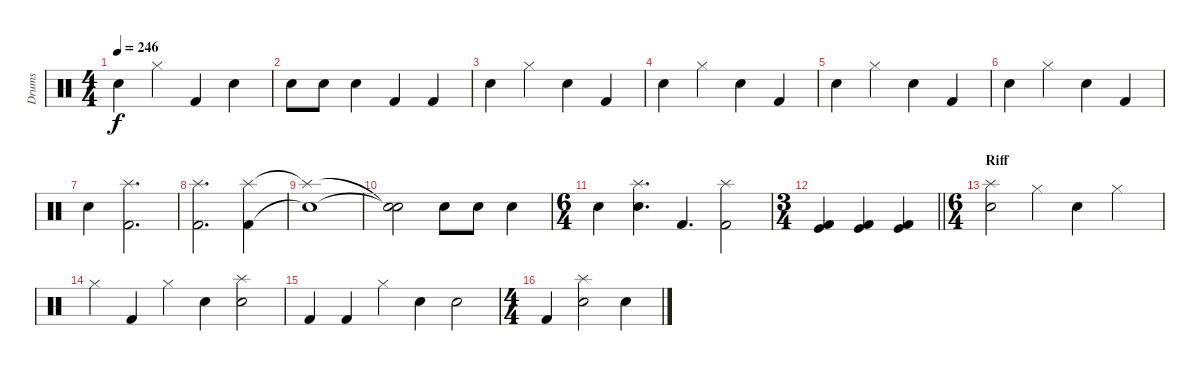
\track ("Drums" "Drums") {instrument percussion}
\staff {score}
\articulation defaults
\ts (4 4)
\tempo 246
\clef neutral
\ks c "Snare (hit) 2".4{dy f} "Hi-Hat (closed)".4 "Kick (hit) 2".4 "Snare (hit) 2".4
|
"Electric Snare (hit)".8 "Electric Snare (hit)".8 "Electric Snare (hit)".4 "Kick (hit) 2".4 "Kick (hit) 2".4 |
"Snare (hit) 2".4 "Hi-Hat (closed)".4 "Snare (hit) 2".4 "Kick (hit) 2".4 |
"Snare (hit) 2".4 "Hi-Hat (closed)".4 "Snare (hit) 2".4 "Kick (hit) 2".4 |
"Snare (hit) 2".4 "Hi-Hat (closed)".4 "Snare (hit) 2".4 "Kick (hit) 2".4 |
"Snare (hit) 2".4 "Hi-Hat (closed)".4 "Snare (hit) 2".4 "Kick (hit) 2".4 |
"Snare (hit) 2".4 ("Splash (hit)" "Kick (hit) 2").2{d} |
("Splash (hit)" "Kick (hit) 2").2{d} ("Splash (hit)" "Kick (hit) 2").4 |
("Splash (hit)"{t} "Snare (hit)"{t}).1 |
("Snare (hit)"{t} "Snare (hit)"{t}).2 "Electric Snare (hit)".8 "Electric Snare (hit)".8 "Electric Snare (hit)".4 |
\ts (6 4)
"Electric Snare (hit)".4 ("Splash (hit)" "Snare (hit) 2").4{d} "Kick (hit) 2".4{d} ("Splash (hit)" "Kick (hit) 2").2 |
\ts (3 4)
\barLineRight lightlight
("Kick (hit)" "Kick (hit) 2").4 ("Kick (hit)" "Kick (hit) 2").4 ("Kick (hit)" "Kick (hit) 2").4 |
\ts (6 4)
\section ("" "Riff")
("Splash (hit)" "Snare (hit) 2").2 "Hi-Hat (closed)".4 "Snare (hit) 2".4 "Hi-Hat (closed)".2 |
"Hi-Hat (closed)".4 "Kick (hit) 2".4 "Hi-Hat (closed)".4 "Snare (hit) 2".4 ("Splash (hit)" "Snare (hit) 2").2 |
"Kick (hit) 2".4 "Kick (hit) 2".4 "Hi-Hat (closed)".4 "Snare (hit) 2".4 "Snare (hit) 2".2 |
\ts (4 4)
"Kick (hit) 2".4 ("Splash (hit)" "Snare (hit) 2").2 "Snare (hit) 2".4
